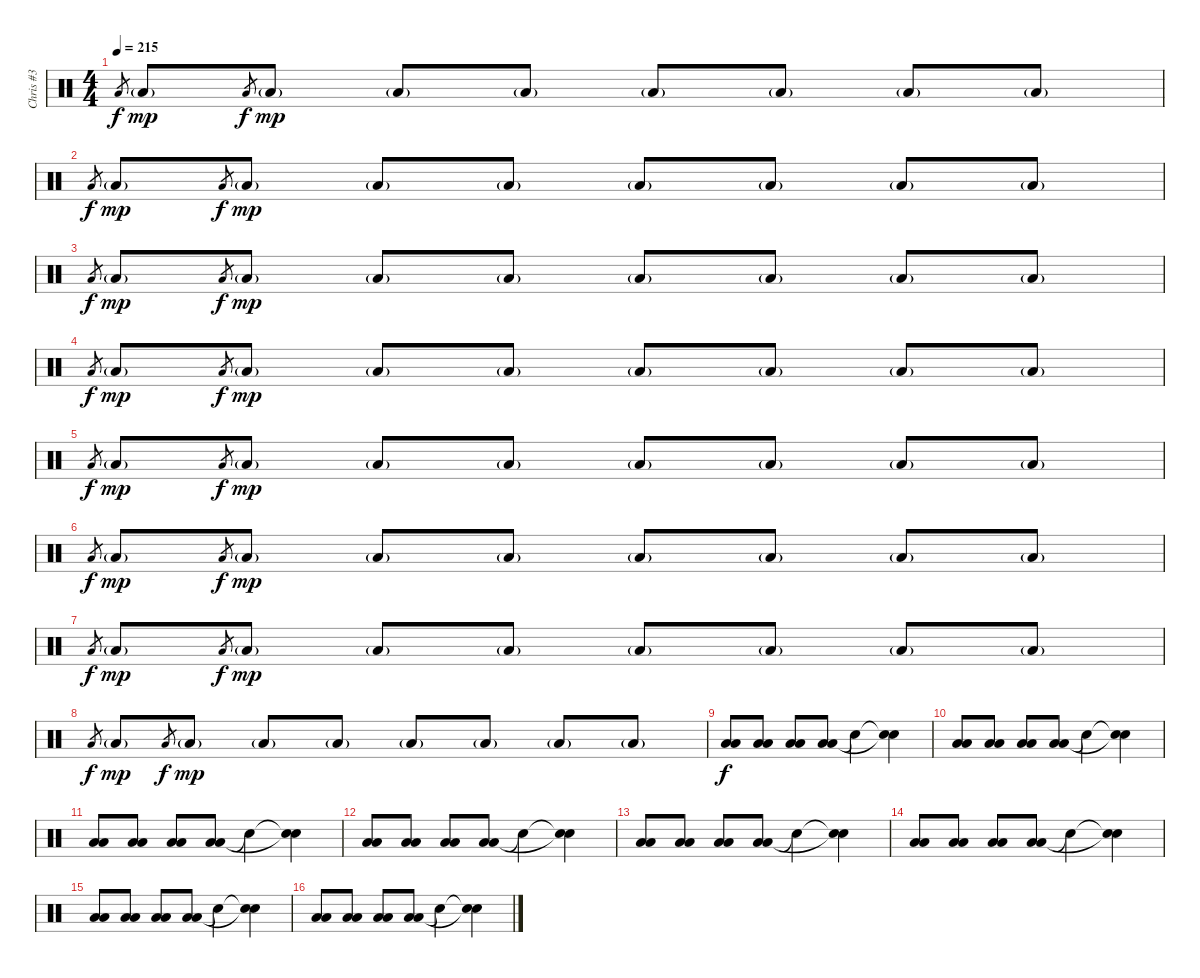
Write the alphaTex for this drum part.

\track ("Chris #3" "Chris #3") {instrument percussion}
\staff {score}
\articulation defaults
\ts (4 4)
\tempo 215
\clef neutral
\ks c "Low Floor Tom (hit)"{sl}.8{gr dy f} "Low Floor Tom (hit)"{g}.8{dy mp} "Low Floor Tom (hit)"{sl}.8{gr dy f} "Low Floor Tom (hit)"{g}.8{dy mp} "Low Floor Tom (hit)"{g}.8 "Low Floor Tom (hit)"{g}.8 "Low Floor Tom (hit)"{g}.8 "Low Floor Tom (hit)"{g}.8 "Low Floor Tom (hit)"{g}.8 "Low Floor Tom (hit)"{g}.8
|
"Low Floor Tom (hit)"{sl}.8{gr dy f} "Low Floor Tom (hit)"{g}.8{dy mp} "Low Floor Tom (hit)"{sl}.8{gr dy f} "Low Floor Tom (hit)"{g}.8{dy mp} "Low Floor Tom (hit)"{g}.8 "Low Floor Tom (hit)"{g}.8 "Low Floor Tom (hit)"{g}.8 "Low Floor Tom (hit)"{g}.8 "Low Floor Tom (hit)"{g}.8 "Low Floor Tom (hit)"{g}.8 |
"Low Floor Tom (hit)"{sl}.8{gr dy f} "Low Floor Tom (hit)"{g}.8{dy mp} "Low Floor Tom (hit)"{sl}.8{gr dy f} "Low Floor Tom (hit)"{g}.8{dy mp} "Low Floor Tom (hit)"{g}.8 "Low Floor Tom (hit)"{g}.8 "Low Floor Tom (hit)"{g}.8 "Low Floor Tom (hit)"{g}.8 "Low Floor Tom (hit)"{g}.8 "Low Floor Tom (hit)"{g}.8 |
"Low Floor Tom (hit)"{sl}.8{gr dy f} "Low Floor Tom (hit)"{g}.8{dy mp} "Low Floor Tom (hit)"{sl}.8{gr dy f} "Low Floor Tom (hit)"{g}.8{dy mp} "Low Floor Tom (hit)"{g}.8 "Low Floor Tom (hit)"{g}.8 "Low Floor Tom (hit)"{g}.8 "Low Floor Tom (hit)"{g}.8 "Low Floor Tom (hit)"{g}.8 "Low Floor Tom (hit)"{g}.8 |
"Low Floor Tom (hit)"{sl}.8{gr dy f} "Low Floor Tom (hit)"{g}.8{dy mp} "Low Floor Tom (hit)"{sl}.8{gr dy f} "Low Floor Tom (hit)"{g}.8{dy mp} "Low Floor Tom (hit)"{g}.8 "Low Floor Tom (hit)"{g}.8 "Low Floor Tom (hit)"{g}.8 "Low Floor Tom (hit)"{g}.8 "Low Floor Tom (hit)"{g}.8 "Low Floor Tom (hit)"{g}.8 |
"Low Floor Tom (hit)"{sl}.8{gr dy f} "Low Floor Tom (hit)"{g}.8{dy mp} "Low Floor Tom (hit)"{sl}.8{gr dy f} "Low Floor Tom (hit)"{g}.8{dy mp} "Low Floor Tom (hit)"{g}.8 "Low Floor Tom (hit)"{g}.8 "Low Floor Tom (hit)"{g}.8 "Low Floor Tom (hit)"{g}.8 "Low Floor Tom (hit)"{g}.8 "Low Floor Tom (hit)"{g}.8 |
"Low Floor Tom (hit)"{sl}.8{gr dy f} "Low Floor Tom (hit)"{g}.8{dy mp} "Low Floor Tom (hit)"{sl}.8{gr dy f} "Low Floor Tom (hit)"{g}.8{dy mp} "Low Floor Tom (hit)"{g}.8 "Low Floor Tom (hit)"{g}.8 "Low Floor Tom (hit)"{g}.8 "Low Floor Tom (hit)"{g}.8 "Low Floor Tom (hit)"{g}.8 "Low Floor Tom (hit)"{g}.8 |
"Low Floor Tom (hit)"{sl}.8{gr dy f} "Low Floor Tom (hit)"{g}.8{dy mp} "Low Floor Tom (hit)"{sl}.8{gr dy f} "Low Floor Tom (hit)"{g}.8{dy mp} "Low Floor Tom (hit)"{g}.8 "Low Floor Tom (hit)"{g}.8 "Low Floor Tom (hit)"{g}.8 "Low Floor Tom (hit)"{g}.8 "Low Floor Tom (hit)"{g}.8 "Low Floor Tom (hit)"{g}.8 |
("Low Floor Tom (hit)" "Low Floor Tom (hit)").8{dy f} ("Low Floor Tom (hit)" "Low Floor Tom (hit)").8 ("Low Floor Tom (hit)" "Low Floor Tom (hit)").8 ("Low Floor Tom (hit)" "Low Floor Tom (hit)").8 "Snare (hit)"{t}.4 ("Snare (hit)"{t} "Snare (hit)"{t}).4 |
("Low Floor Tom (hit)" "Low Floor Tom (hit)").8 ("Low Floor Tom (hit)" "Low Floor Tom (hit)").8 ("Low Floor Tom (hit)" "Low Floor Tom (hit)").8 ("Low Floor Tom (hit)" "Low Floor Tom (hit)").8 "Snare (hit)"{t}.4 ("Snare (hit)"{t} "Snare (hit)"{t}).4 |
("Low Floor Tom (hit)" "Low Floor Tom (hit)").8 ("Low Floor Tom (hit)" "Low Floor Tom (hit)").8 ("Low Floor Tom (hit)" "Low Floor Tom (hit)").8 ("Low Floor Tom (hit)" "Low Floor Tom (hit)").8 "Snare (hit)"{t}.4 ("Snare (hit)"{t} "Snare (hit)"{t}).4 |
("Low Floor Tom (hit)" "Low Floor Tom (hit)").8 ("Low Floor Tom (hit)" "Low Floor Tom (hit)").8 ("Low Floor Tom (hit)" "Low Floor Tom (hit)").8 ("Low Floor Tom (hit)" "Low Floor Tom (hit)").8 "Snare (hit)"{t}.4 ("Snare (hit)"{t} "Snare (hit)"{t}).4 |
("Low Floor Tom (hit)" "Low Floor Tom (hit)").8 ("Low Floor Tom (hit)" "Low Floor Tom (hit)").8 ("Low Floor Tom (hit)" "Low Floor Tom (hit)").8 ("Low Floor Tom (hit)" "Low Floor Tom (hit)").8 "Snare (hit)"{t}.4 ("Snare (hit)"{t} "Snare (hit)"{t}).4 |
("Low Floor Tom (hit)" "Low Floor Tom (hit)").8 ("Low Floor Tom (hit)" "Low Floor Tom (hit)").8 ("Low Floor Tom (hit)" "Low Floor Tom (hit)").8 ("Low Floor Tom (hit)" "Low Floor Tom (hit)").8 "Snare (hit)"{t}.4 ("Snare (hit)"{t} "Snare (hit)"{t}).4 |
("Low Floor Tom (hit)" "Low Floor Tom (hit)").8 ("Low Floor Tom (hit)" "Low Floor Tom (hit)").8 ("Low Floor Tom (hit)" "Low Floor Tom (hit)").8 ("Low Floor Tom (hit)" "Low Floor Tom (hit)").8 "Snare (hit)"{t}.4 ("Snare (hit)"{t} "Snare (hit)"{t}).4 |
("Low Floor Tom (hit)" "Low Floor Tom (hit)").8 ("Low Floor Tom (hit)" "Low Floor Tom (hit)").8 ("Low Floor Tom (hit)" "Low Floor Tom (hit)").8 ("Low Floor Tom (hit)" "Low Floor Tom (hit)").8 "Snare (hit)"{t}.4 ("Snare (hit)"{t} "Snare (hit)"{t}).4
